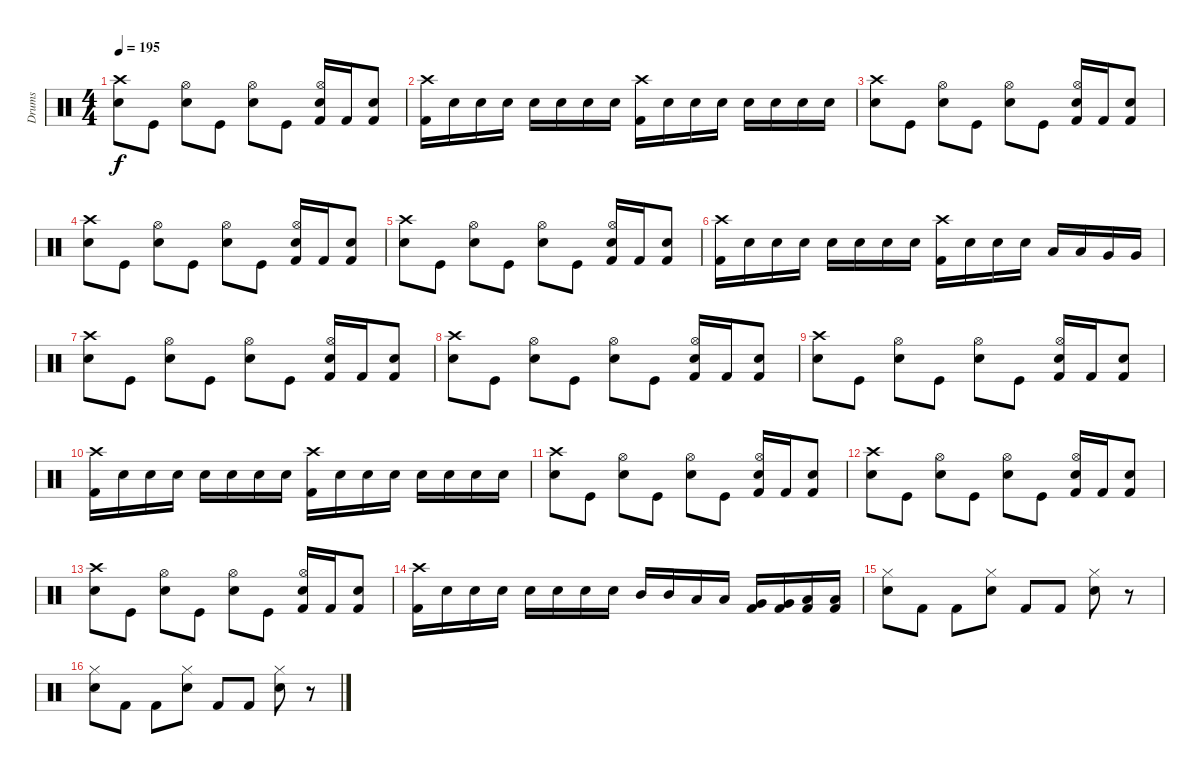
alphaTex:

\track ("Drums" "Drums") {instrument percussion}
\staff {score}
\articulation defaults
\ts (4 4)
\tempo 195
\clef neutral
\ks c
("Crash high (hit)" "Electric Snare (hit)").8{dy f} "Kick (hit)".8 ("Electric Snare (hit)" "Hi-Hat (open)").8 "Kick (hit)".8 ("Electric Snare (hit)" "Hi-Hat (open)").8 "Kick (hit)".8 ("Electric Snare (hit)" "Kick (hit) 2" "Hi-Hat (open)").16 "Kick (hit) 2".16 ("Electric Snare (hit)" "Kick (hit) 2").8 |
("Crash high (hit)" "Kick (hit) 2").16 "Electric Snare (hit)".16 "Electric Snare (hit)".16 "Electric Snare (hit)".16 "Electric Snare (hit)".16 "Electric Snare (hit)".16 "Electric Snare (hit)".16 "Electric Snare (hit)".16 ("Crash high (hit)" "Kick (hit) 2").16 "Electric Snare (hit)".16 "Electric Snare (hit)".16 "Electric Snare (hit)".16 "Electric Snare (hit)".16 "Electric Snare (hit)".16 "Electric Snare (hit)".16 "Electric Snare (hit)".16 |
("Crash high (hit)" "Electric Snare (hit)").8 "Kick (hit)".8 ("Electric Snare (hit)" "Hi-Hat (open)").8 "Kick (hit)".8 ("Electric Snare (hit)" "Hi-Hat (open)").8 "Kick (hit)".8 ("Electric Snare (hit)" "Kick (hit) 2" "Hi-Hat (open)").16 "Kick (hit) 2".16 ("Electric Snare (hit)" "Kick (hit) 2").8 |
("Crash high (hit)" "Electric Snare (hit)").8 "Kick (hit)".8 ("Electric Snare (hit)" "Hi-Hat (open)").8 "Kick (hit)".8 ("Electric Snare (hit)" "Hi-Hat (open)").8 "Kick (hit)".8 ("Electric Snare (hit)" "Kick (hit) 2" "Hi-Hat (open)").16 "Kick (hit) 2".16 ("Electric Snare (hit)" "Kick (hit) 2").8 |
("Crash high (hit)" "Electric Snare (hit)").8 "Kick (hit)".8 ("Electric Snare (hit)" "Hi-Hat (open)").8 "Kick (hit)".8 ("Electric Snare (hit)" "Hi-Hat (open)").8 "Kick (hit)".8 ("Electric Snare (hit)" "Kick (hit) 2" "Hi-Hat (open)").16 "Kick (hit) 2".16 ("Electric Snare (hit)" "Kick (hit) 2").8 |
("Crash high (hit)" "Kick (hit) 2").16 "Electric Snare (hit)".16 "Electric Snare (hit)".16 "Electric Snare (hit)".16 "Electric Snare (hit)".16 "Electric Snare (hit)".16 "Electric Snare (hit)".16 "Electric Snare (hit)".16 ("Crash high (hit)" "Kick (hit) 2").16 "Electric Snare (hit)".16 "Electric Snare (hit)".16 "Electric Snare (hit)".16 "Low Tom (hit)".16 "Low Tom (hit)".16 "Very Low Tom (hit)".16 "Very Low Tom (hit)".16 |
("Crash high (hit)" "Electric Snare (hit)").8 "Kick (hit)".8 ("Electric Snare (hit)" "Hi-Hat (open)").8 "Kick (hit)".8 ("Electric Snare (hit)" "Hi-Hat (open)").8 "Kick (hit)".8 ("Electric Snare (hit)" "Kick (hit) 2" "Hi-Hat (open)").16 "Kick (hit) 2".16 ("Electric Snare (hit)" "Kick (hit) 2").8 |
("Crash high (hit)" "Electric Snare (hit)").8 "Kick (hit)".8 ("Electric Snare (hit)" "Hi-Hat (open)").8 "Kick (hit)".8 ("Electric Snare (hit)" "Hi-Hat (open)").8 "Kick (hit)".8 ("Electric Snare (hit)" "Kick (hit) 2" "Hi-Hat (open)").16 "Kick (hit) 2".16 ("Electric Snare (hit)" "Kick (hit) 2").8 |
("Crash high (hit)" "Electric Snare (hit)").8 "Kick (hit)".8 ("Electric Snare (hit)" "Hi-Hat (open)").8 "Kick (hit)".8 ("Electric Snare (hit)" "Hi-Hat (open)").8 "Kick (hit)".8 ("Electric Snare (hit)" "Kick (hit) 2" "Hi-Hat (open)").16 "Kick (hit) 2".16 ("Electric Snare (hit)" "Kick (hit) 2").8 |
("Crash high (hit)" "Kick (hit) 2").16 "Electric Snare (hit)".16 "Electric Snare (hit)".16 "Electric Snare (hit)".16 "Electric Snare (hit)".16 "Electric Snare (hit)".16 "Electric Snare (hit)".16 "Electric Snare (hit)".16 ("Crash high (hit)" "Kick (hit) 2").16 "Electric Snare (hit)".16 "Electric Snare (hit)".16 "Electric Snare (hit)".16 "Electric Snare (hit)".16 "Electric Snare (hit)".16 "Electric Snare (hit)".16 "Electric Snare (hit)".16 |
("Crash high (hit)" "Electric Snare (hit)").8 "Kick (hit)".8 ("Electric Snare (hit)" "Hi-Hat (open)").8 "Kick (hit)".8 ("Electric Snare (hit)" "Hi-Hat (open)").8 "Kick (hit)".8 ("Electric Snare (hit)" "Kick (hit) 2" "Hi-Hat (open)").16 "Kick (hit) 2".16 ("Electric Snare (hit)" "Kick (hit) 2").8 |
("Crash high (hit)" "Electric Snare (hit)").8 "Kick (hit)".8 ("Electric Snare (hit)" "Hi-Hat (open)").8 "Kick (hit)".8 ("Electric Snare (hit)" "Hi-Hat (open)").8 "Kick (hit)".8 ("Electric Snare (hit)" "Kick (hit) 2" "Hi-Hat (open)").16 "Kick (hit) 2".16 ("Electric Snare (hit)" "Kick (hit) 2").8 |
("Crash high (hit)" "Electric Snare (hit)").8 "Kick (hit)".8 ("Electric Snare (hit)" "Hi-Hat (open)").8 "Kick (hit)".8 ("Electric Snare (hit)" "Hi-Hat (open)").8 "Kick (hit)".8 ("Electric Snare (hit)" "Kick (hit) 2" "Hi-Hat (open)").16 "Kick (hit) 2".16 ("Electric Snare (hit)" "Kick (hit) 2").8 |
("Crash high (hit)" "Kick (hit) 2").16 "Electric Snare (hit)".16 "Electric Snare (hit)".16 "Electric Snare (hit)".16 "Electric Snare (hit)".16 "Electric Snare (hit)".16 "Electric Snare (hit)".16 "Electric Snare (hit)".16 "Mid Tom (hit)".16 "Mid Tom (hit)".16 "Low Tom (hit)".16 "Low Tom (hit)".16 ("Very Low Tom (hit)" "Kick (hit) 2").16 ("Very Low Tom (hit)" "Kick (hit) 2").16 ("Low Floor Tom (hit)" "Kick (hit) 2").16 ("Low Floor Tom (hit)" "Kick (hit) 2").16 |
("Hi-Hat (closed)" "Electric Snare (hit)").8 "Kick (hit) 2".8 "Kick (hit) 2".8 ("Electric Snare (hit)" "Hi-Hat (closed)").8 "Kick (hit) 2".8 "Kick (hit) 2".8 ("Hi-Hat (closed)" "Electric Snare (hit)").8 r.8 |
("Hi-Hat (closed)" "Electric Snare (hit)").8 "Kick (hit) 2".8 "Kick (hit) 2".8 ("Hi-Hat (closed)" "Electric Snare (hit)").8 "Kick (hit) 2".8 "Kick (hit) 2".8 ("Hi-Hat (closed)" "Electric Snare (hit)").8 r.8
